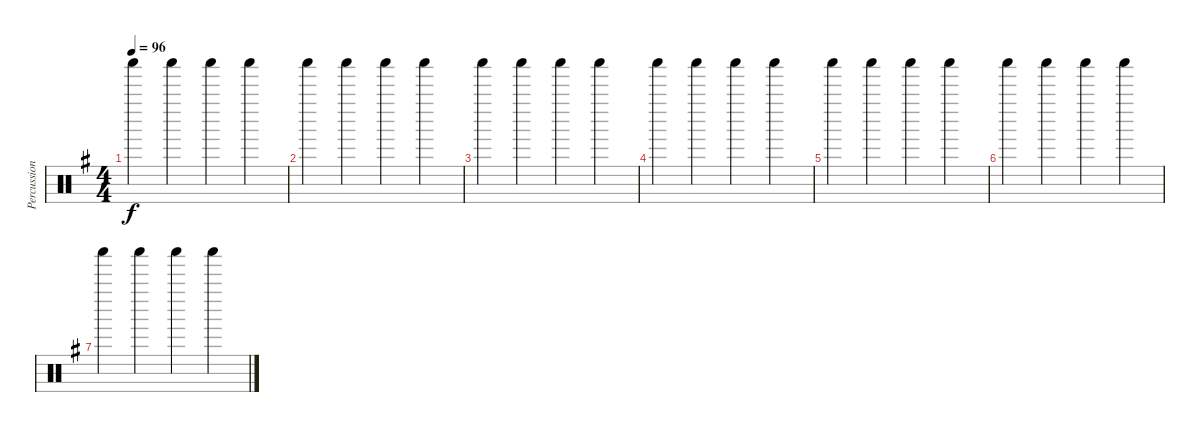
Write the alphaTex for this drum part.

\track ("Percussion" "Percussion") {instrument percussion}
\staff {score}
\articulation defaults
\ts (4 4)
\tempo 96
\clef neutral
\ks g "Shaker (hit)".4{dy f} "Shaker (hit)".4 "Shaker (hit)".4 "Shaker (hit)".4
|
"Shaker (hit)".4 "Shaker (hit)".4 "Shaker (hit)".4 "Shaker (hit)".4 |
"Shaker (hit)".4 "Shaker (hit)".4 "Shaker (hit)".4 "Shaker (hit)".4 |
"Shaker (hit)".4 "Shaker (hit)".4 "Shaker (hit)".4 "Shaker (hit)".4 |
"Shaker (hit)".4{volume 0} "Shaker (hit)".4 "Shaker (hit)".4 "Shaker (hit)".4 |
"Shaker (hit)".4 "Shaker (hit)".4 "Shaker (hit)".4 "Shaker (hit)".4 |
"Shaker (hit)".4 "Shaker (hit)".4 "Shaker (hit)".4 "Shaker (hit)".4
